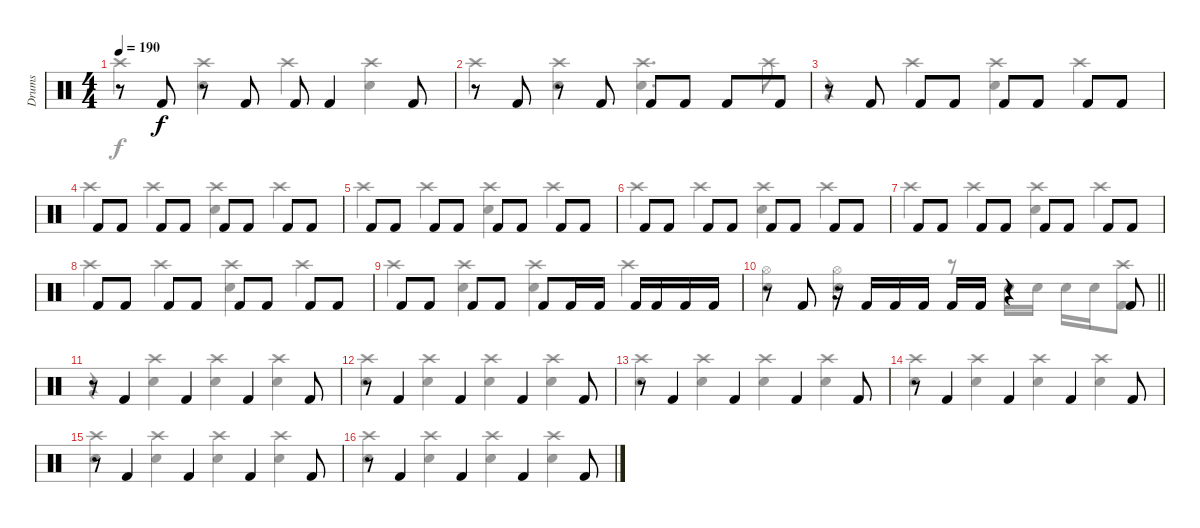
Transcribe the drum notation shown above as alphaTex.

\track ("Drums" "Drums") {instrument percussion}
\staff {score}
\articulation defaults
\voice
\ts (4 4)
\tempo 190
\clef neutral
\ks c
r.8{dy f} "Kick (hit) 2".8 r.8 "Kick (hit) 2".8 "Kick (hit) 2".8 "Kick (hit) 2".4 "Kick (hit) 2".8 |
r.8 "Kick (hit) 2".8 r.8 "Kick (hit) 2".8 "Kick (hit) 2".8 "Kick (hit) 2".8 "Kick (hit) 2".8 "Kick (hit) 2".8 |
r.8 "Kick (hit) 2".8 "Kick (hit) 2".8 "Kick (hit) 2".8 "Kick (hit) 2".8 "Kick (hit) 2".8 "Kick (hit) 2".8 "Kick (hit) 2".8 |
"Kick (hit) 2".8 "Kick (hit) 2".8 "Kick (hit) 2".8 "Kick (hit) 2".8 "Kick (hit) 2".8 "Kick (hit) 2".8 "Kick (hit) 2".8 "Kick (hit) 2".8 |
"Kick (hit) 2".8 "Kick (hit) 2".8 "Kick (hit) 2".8 "Kick (hit) 2".8 "Kick (hit) 2".8 "Kick (hit) 2".8 "Kick (hit) 2".8 "Kick (hit) 2".8 |
"Kick (hit) 2".8 "Kick (hit) 2".8 "Kick (hit) 2".8 "Kick (hit) 2".8 "Kick (hit) 2".8 "Kick (hit) 2".8 "Kick (hit) 2".8 "Kick (hit) 2".8 |
"Kick (hit) 2".8 "Kick (hit) 2".8 "Kick (hit) 2".8 "Kick (hit) 2".8 "Kick (hit) 2".8 "Kick (hit) 2".8 "Kick (hit) 2".8 "Kick (hit) 2".8 |
"Kick (hit) 2".8 "Kick (hit) 2".8 "Kick (hit) 2".8 "Kick (hit) 2".8 "Kick (hit) 2".8 "Kick (hit) 2".8 "Kick (hit) 2".8 "Kick (hit) 2".8 |
"Kick (hit) 2".8 "Kick (hit) 2".8 "Kick (hit) 2".8 "Kick (hit) 2".8 "Kick (hit) 2".8 "Kick (hit) 2".16 "Kick (hit) 2".16 "Kick (hit) 2".16 "Kick (hit) 2".16 "Kick (hit) 2".16 "Kick (hit) 2".16 |
\barLineRight lightlight
r.8 "Kick (hit) 2".8 r.16 "Kick (hit) 2".16 "Kick (hit) 2".16 "Kick (hit) 2".16 "Kick (hit) 2".16 "Kick (hit) 2".16 r.4 "Kick (hit) 2".8 |
r.8 "Kick (hit) 2".4 "Kick (hit) 2".4 "Kick (hit) 2".4 "Kick (hit) 2".8 |
r.8 "Kick (hit) 2".4 "Kick (hit) 2".4 "Kick (hit) 2".4 "Kick (hit) 2".8 |
r.8 "Kick (hit) 2".4 "Kick (hit) 2".4 "Kick (hit) 2".4 "Kick (hit) 2".8 |
r.8 "Kick (hit) 2".4 "Kick (hit) 2".4 "Kick (hit) 2".4 "Kick (hit) 2".8 |
r.8 "Kick (hit) 2".4 "Kick (hit) 2".4 "Kick (hit) 2".4 "Kick (hit) 2".8 |
r.8 "Kick (hit) 2".4 "Kick (hit) 2".4 "Kick (hit) 2".4 "Kick (hit) 2".8
\voice
\clef neutral
\ottava regular
\simile none
\ks c "Crash high (hit)".4{dy f}
("Electric Snare (hit)" "Crash high (hit)").4 "Crash high (hit)".4 ("Electric Snare (hit)" "Crash high (hit)").4 |
"Crash high (hit)".4 ("Electric Snare (hit)" "Crash high (hit)").4 ("Electric Snare (hit)" "Crash high (hit)").4{d} "Crash high (hit)".8 |
r.4 "Crash high (hit)".4 ("Electric Snare (hit)" "Crash high (hit)").4 "Crash high (hit)".4 |
"Crash high (hit)".4 "Crash high (hit)".4 ("Electric Snare (hit)" "Crash high (hit)").4 "Crash high (hit)".4 |
"Crash high (hit)".4 "Crash high (hit)".4 ("Electric Snare (hit)" "Crash high (hit)").4 "Crash high (hit)".4 |
"Crash high (hit)".4 "Crash high (hit)".4 ("Electric Snare (hit)" "Crash high (hit)").4 "Crash high (hit)".4 |
"Crash high (hit)".4 "Crash high (hit)".4 ("Electric Snare (hit)" "Crash high (hit)").4 "Crash high (hit)".4 |
"Crash high (hit)".4 "Crash high (hit)".4 ("Electric Snare (hit)" "Crash high (hit)").4 "Crash high (hit)".4 |
"Crash high (hit)".4 ("Electric Snare (hit)" "Crash high (hit)").4 ("Electric Snare (hit)" "Crash high (hit)").4 "Crash high (hit)".4 |
\barLineRight lightlight
("Electric Snare (hit)" "Hi-Hat (open)").4 ("Electric Snare (hit)" "Hi-Hat (open)").4 r.8 "Electric Snare (hit)".16 "Electric Snare (hit)".16 "Electric Snare (hit)".16 "Electric Snare (hit)".16 ("Kick (hit) 2" "Crash high (hit)").8 |
r.4 ("Electric Snare (hit)" "Crash high (hit)").4 ("Electric Snare (hit)" "Crash high (hit)").4 ("Electric Snare (hit)" "Crash high (hit)").4 |
("Electric Snare (hit)" "Crash high (hit)").4 ("Electric Snare (hit)" "Crash high (hit)").4 ("Electric Snare (hit)" "Crash high (hit)").4 ("Electric Snare (hit)" "Crash high (hit)").4 |
("Electric Snare (hit)" "Crash high (hit)").4 ("Electric Snare (hit)" "Crash high (hit)").4 ("Electric Snare (hit)" "Crash high (hit)").4 ("Electric Snare (hit)" "Crash high (hit)").4 |
("Electric Snare (hit)" "Crash high (hit)").4 ("Electric Snare (hit)" "Crash high (hit)").4 ("Electric Snare (hit)" "Crash high (hit)").4 ("Electric Snare (hit)" "Crash high (hit)").4 |
("Electric Snare (hit)" "Crash high (hit)").4 ("Electric Snare (hit)" "Crash high (hit)").4 ("Electric Snare (hit)" "Crash high (hit)").4 ("Electric Snare (hit)" "Crash high (hit)").4 |
("Electric Snare (hit)" "Crash high (hit)").4 ("Electric Snare (hit)" "Crash high (hit)").4 ("Electric Snare (hit)" "Crash high (hit)").4 ("Electric Snare (hit)" "Crash high (hit)").4
